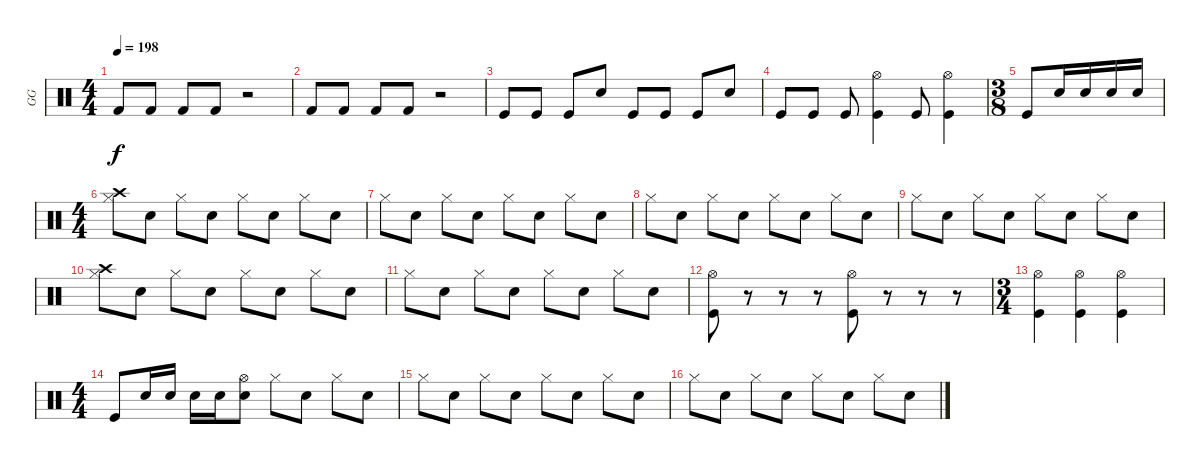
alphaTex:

\track ("GG" "GG") {instrument percussion}
\staff {score}
\articulation defaults
\ts (4 4)
\tempo 198
\clef neutral
\ks c "Kick (hit) 2".8{dy f} "Kick (hit) 2".8 "Kick (hit) 2".8 "Kick (hit) 2".8
r.2 |
"Kick (hit) 2".8 "Kick (hit) 2".8 "Kick (hit) 2".8 "Kick (hit) 2".8 r.2 |
"Kick (hit)".8 "Kick (hit)".8 "Kick (hit)".8 "Snare (hit) 2".8 "Kick (hit)".8 "Kick (hit)".8 "Kick (hit)".8 "Snare (hit) 2".8 |
"Kick (hit)".8 "Kick (hit)".8 "Kick (hit)".8 ("Hi-Hat (open)" "Kick (hit)").4 "Kick (hit)".8 ("Hi-Hat (open)" "Kick (hit)").4 |
\ts (3 8)
"Kick (hit)".8 "Snare (hit) 2".16 "Snare (hit) 2".16 "Snare (hit) 2".16 "Snare (hit) 2".16 |
\ts (4 4)
("Crash high (hit)" "Hi-Hat (closed)").8 "Snare (hit) 2".8 "Hi-Hat (closed)".8 "Snare (hit) 2".8 "Hi-Hat (closed)".8 "Snare (hit) 2".8 "Hi-Hat (closed)".8 "Snare (hit) 2".8 |
"Hi-Hat (closed)".8 "Snare (hit) 2".8 "Hi-Hat (closed)".8 "Snare (hit) 2".8 "Hi-Hat (closed)".8 "Snare (hit) 2".8 "Hi-Hat (closed)".8 "Snare (hit) 2".8 |
"Hi-Hat (closed)".8 "Snare (hit) 2".8 "Hi-Hat (closed)".8 "Snare (hit) 2".8 "Hi-Hat (closed)".8 "Snare (hit) 2".8 "Hi-Hat (closed)".8 "Snare (hit) 2".8 |
"Hi-Hat (closed)".8 "Snare (hit) 2".8 "Hi-Hat (closed)".8 "Snare (hit) 2".8 "Hi-Hat (closed)".8 "Snare (hit) 2".8 "Hi-Hat (closed)".8 "Snare (hit) 2".8 |
("Crash high (hit)" "Hi-Hat (closed)").8 "Snare (hit) 2".8 "Hi-Hat (closed)".8 "Snare (hit) 2".8 "Hi-Hat (closed)".8 "Snare (hit) 2".8 "Hi-Hat (closed)".8 "Snare (hit) 2".8 |
"Hi-Hat (closed)".8 "Snare (hit) 2".8 "Hi-Hat (closed)".8 "Snare (hit) 2".8 "Hi-Hat (closed)".8 "Snare (hit) 2".8 "Hi-Hat (closed)".8 "Snare (hit) 2".8 |
("Kick (hit)" "Hi-Hat (open)").8 r.8 r.8 r.8 ("Kick (hit)" "Hi-Hat (open)").8 r.8 r.8 r.8 |
\ts (3 4)
("Kick (hit)" "Hi-Hat (open)").4 ("Kick (hit)" "Hi-Hat (open)").4 ("Kick (hit)" "Hi-Hat (open)").4 |
\ts (4 4)
"Kick (hit)".8 "Snare (hit) 2".16 "Snare (hit) 2".16 "Snare (hit) 2".16 "Snare (hit) 2".16 ("Hi-Hat (open)" "Snare (hit) 2").8 "Hi-Hat (closed)".8 "Snare (hit) 2".8 "Hi-Hat (closed)".8 "Snare (hit) 2".8 |
"Hi-Hat (closed)".8 "Snare (hit) 2".8 "Hi-Hat (closed)".8 "Snare (hit) 2".8 "Hi-Hat (closed)".8 "Snare (hit) 2".8 "Hi-Hat (closed)".8 "Snare (hit) 2".8 |
"Hi-Hat (closed)".8 "Snare (hit) 2".8 "Hi-Hat (closed)".8 "Snare (hit) 2".8 "Hi-Hat (closed)".8 "Snare (hit) 2".8 "Hi-Hat (closed)".8 "Snare (hit) 2".8
